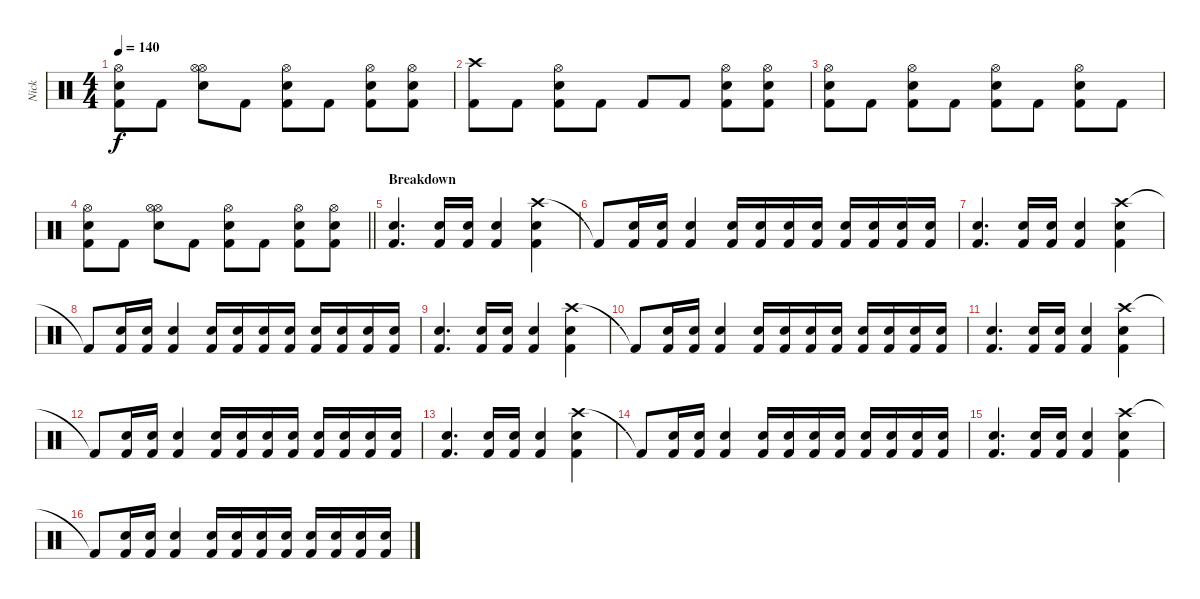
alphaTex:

\track ("Nick" "Nick") {instrument percussion}
\staff {score}
\articulation defaults
\ts (4 4)
\tempo 140
\clef neutral
\ks c
("Hi-Hat (open)" "Snare (hit) 2" "Kick (hit) 2").8{dy f} "Kick (hit) 2".8 ("Hi-Hat (open)" "Snare (hit) 2" "Hi-Hat (open)").8 "Kick (hit) 2".8 ("Hi-Hat (open)" "Snare (hit) 2" "Kick (hit) 2").8 "Kick (hit) 2".8 ("Hi-Hat (open)" "Snare (hit) 2" "Kick (hit) 2").8 ("Hi-Hat (open)" "Snare (hit) 2" "Kick (hit) 2").8 |
("Crash high (hit)" "Kick (hit) 2").8 "Kick (hit) 2".8 ("Hi-Hat (open)" "Snare (hit) 2" "Kick (hit) 2").8 "Kick (hit) 2".8 "Kick (hit) 2".8 "Kick (hit) 2".8 ("Hi-Hat (open)" "Snare (hit) 2" "Kick (hit) 2").8 ("Hi-Hat (open)" "Snare (hit) 2" "Kick (hit) 2").8 |
("Hi-Hat (open)" "Snare (hit) 2" "Kick (hit) 2").8 "Kick (hit) 2".8 ("Hi-Hat (open)" "Snare (hit) 2" "Kick (hit) 2").8 "Kick (hit) 2".8 ("Hi-Hat (open)" "Snare (hit) 2" "Kick (hit) 2").8 "Kick (hit) 2".8 ("Hi-Hat (open)" "Snare (hit) 2" "Kick (hit) 2").8 "Kick (hit) 2".8 |
\barLineRight lightlight
("Hi-Hat (open)" "Snare (hit) 2" "Kick (hit) 2").8 "Kick (hit) 2".8 ("Hi-Hat (open)" "Snare (hit) 2" "Hi-Hat (open)").8 "Kick (hit) 2".8 ("Hi-Hat (open)" "Snare (hit) 2" "Kick (hit) 2").8 "Kick (hit) 2".8 ("Hi-Hat (open)" "Snare (hit) 2" "Kick (hit) 2").8 ("Hi-Hat (open)" "Snare (hit) 2" "Kick (hit) 2").8 |
\section ("" "Breakdown")
("Snare (hit) 2" "Kick (hit) 2").4{d} ("Snare (hit) 2" "Kick (hit) 2").16 ("Snare (hit) 2" "Kick (hit) 2").16 ("Snare (hit) 2" "Kick (hit) 2").4 ("Crash high (hit)" "Snare (hit) 2" "Kick (hit) 2").4 |
"Kick (hit) 2"{t}.8 ("Snare (hit) 2" "Kick (hit) 2").16 ("Snare (hit) 2" "Kick (hit) 2").16 ("Snare (hit) 2" "Kick (hit) 2").4 ("Snare (hit) 2" "Kick (hit) 2").16 ("Snare (hit) 2" "Kick (hit) 2").16 ("Snare (hit) 2" "Kick (hit) 2").16 ("Snare (hit) 2" "Kick (hit) 2").16 ("Snare (hit) 2" "Kick (hit) 2").16 ("Snare (hit) 2" "Kick (hit) 2").16 ("Snare (hit) 2" "Kick (hit) 2").16 ("Snare (hit) 2" "Kick (hit) 2").16 |
("Snare (hit) 2" "Kick (hit) 2").4{d} ("Snare (hit) 2" "Kick (hit) 2").16 ("Snare (hit) 2" "Kick (hit) 2").16 ("Snare (hit) 2" "Kick (hit) 2").4 ("Crash high (hit)" "Snare (hit) 2" "Kick (hit) 2").4 |
"Kick (hit) 2"{t}.8 ("Snare (hit) 2" "Kick (hit) 2").16 ("Snare (hit) 2" "Kick (hit) 2").16 ("Snare (hit) 2" "Kick (hit) 2").4 ("Snare (hit) 2" "Kick (hit) 2").16 ("Snare (hit) 2" "Kick (hit) 2").16 ("Snare (hit) 2" "Kick (hit) 2").16 ("Snare (hit) 2" "Kick (hit) 2").16 ("Snare (hit) 2" "Kick (hit) 2").16 ("Snare (hit) 2" "Kick (hit) 2").16 ("Snare (hit) 2" "Kick (hit) 2").16 ("Snare (hit) 2" "Kick (hit) 2").16 |
("Snare (hit) 2" "Kick (hit) 2").4{d} ("Snare (hit) 2" "Kick (hit) 2").16 ("Snare (hit) 2" "Kick (hit) 2").16 ("Snare (hit) 2" "Kick (hit) 2").4 ("Crash high (hit)" "Snare (hit) 2" "Kick (hit) 2").4 |
"Kick (hit) 2"{t}.8 ("Snare (hit) 2" "Kick (hit) 2").16 ("Snare (hit) 2" "Kick (hit) 2").16 ("Snare (hit) 2" "Kick (hit) 2").4 ("Snare (hit) 2" "Kick (hit) 2").16 ("Snare (hit) 2" "Kick (hit) 2").16 ("Snare (hit) 2" "Kick (hit) 2").16 ("Snare (hit) 2" "Kick (hit) 2").16 ("Snare (hit) 2" "Kick (hit) 2").16 ("Snare (hit) 2" "Kick (hit) 2").16 ("Snare (hit) 2" "Kick (hit) 2").16 ("Snare (hit) 2" "Kick (hit) 2").16 |
("Snare (hit) 2" "Kick (hit) 2").4{d} ("Snare (hit) 2" "Kick (hit) 2").16 ("Snare (hit) 2" "Kick (hit) 2").16 ("Snare (hit) 2" "Kick (hit) 2").4 ("Crash high (hit)" "Snare (hit) 2" "Kick (hit) 2").4 |
"Kick (hit) 2"{t}.8 ("Snare (hit) 2" "Kick (hit) 2").16 ("Snare (hit) 2" "Kick (hit) 2").16 ("Snare (hit) 2" "Kick (hit) 2").4 ("Snare (hit) 2" "Kick (hit) 2").16 ("Snare (hit) 2" "Kick (hit) 2").16 ("Snare (hit) 2" "Kick (hit) 2").16 ("Snare (hit) 2" "Kick (hit) 2").16 ("Snare (hit) 2" "Kick (hit) 2").16 ("Snare (hit) 2" "Kick (hit) 2").16 ("Snare (hit) 2" "Kick (hit) 2").16 ("Snare (hit) 2" "Kick (hit) 2").16 |
("Snare (hit) 2" "Kick (hit) 2").4{d} ("Snare (hit) 2" "Kick (hit) 2").16 ("Snare (hit) 2" "Kick (hit) 2").16 ("Snare (hit) 2" "Kick (hit) 2").4 ("Crash high (hit)" "Snare (hit) 2" "Kick (hit) 2").4 |
"Kick (hit) 2"{t}.8 ("Snare (hit) 2" "Kick (hit) 2").16 ("Snare (hit) 2" "Kick (hit) 2").16 ("Snare (hit) 2" "Kick (hit) 2").4 ("Snare (hit) 2" "Kick (hit) 2").16 ("Snare (hit) 2" "Kick (hit) 2").16 ("Snare (hit) 2" "Kick (hit) 2").16 ("Snare (hit) 2" "Kick (hit) 2").16 ("Snare (hit) 2" "Kick (hit) 2").16 ("Snare (hit) 2" "Kick (hit) 2").16 ("Snare (hit) 2" "Kick (hit) 2").16 ("Snare (hit) 2" "Kick (hit) 2").16 |
("Snare (hit) 2" "Kick (hit) 2").4{d} ("Snare (hit) 2" "Kick (hit) 2").16 ("Snare (hit) 2" "Kick (hit) 2").16 ("Snare (hit) 2" "Kick (hit) 2").4 ("Crash high (hit)" "Snare (hit) 2" "Kick (hit) 2").4 |
"Kick (hit) 2"{t}.8 ("Snare (hit) 2" "Kick (hit) 2").16 ("Snare (hit) 2" "Kick (hit) 2").16 ("Snare (hit) 2" "Kick (hit) 2").4 ("Snare (hit) 2" "Kick (hit) 2").16 ("Snare (hit) 2" "Kick (hit) 2").16 ("Snare (hit) 2" "Kick (hit) 2").16 ("Snare (hit) 2" "Kick (hit) 2").16 ("Snare (hit) 2" "Kick (hit) 2").16 ("Snare (hit) 2" "Kick (hit) 2").16 ("Snare (hit) 2" "Kick (hit) 2").16 ("Snare (hit) 2" "Kick (hit) 2").16
